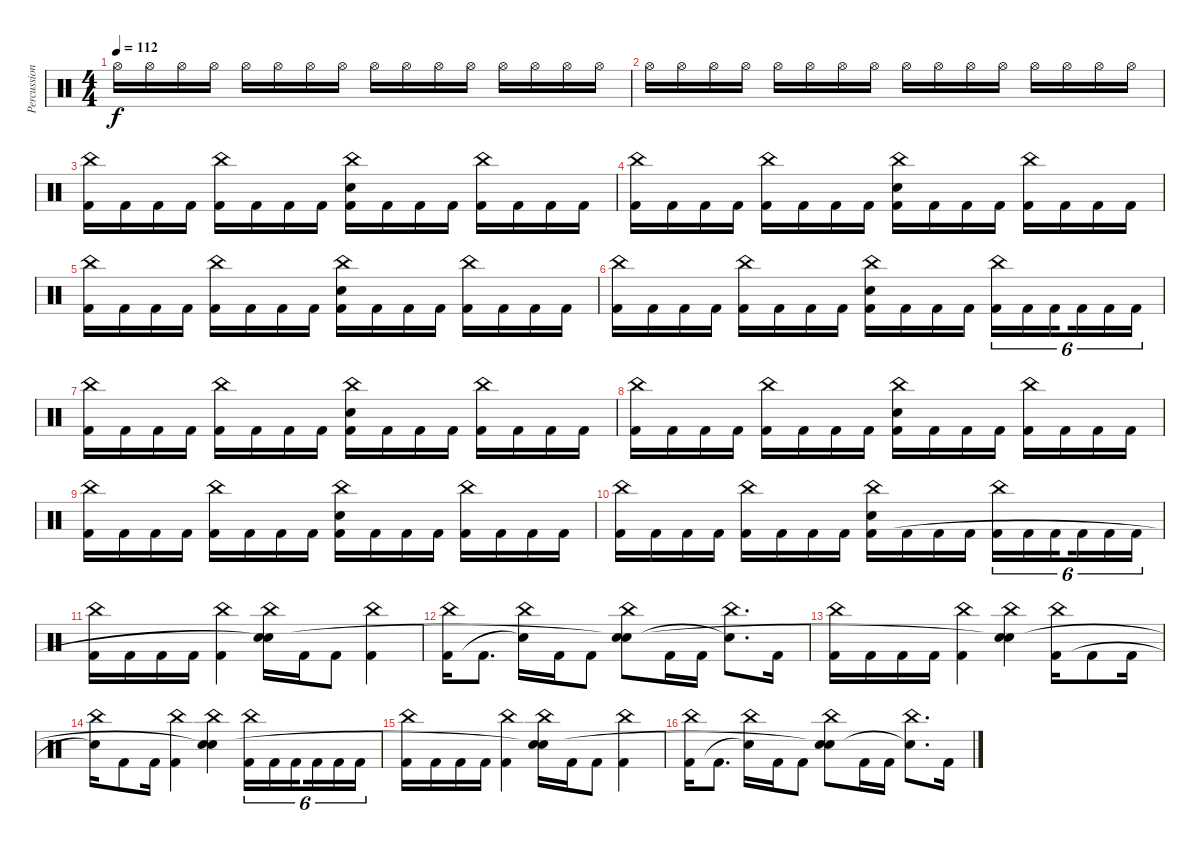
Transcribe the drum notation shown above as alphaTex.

\track ("Percussion" "Percussion") {instrument percussion}
\staff {score}
\articulation defaults
\ts (4 4)
\tempo 112
\clef neutral
\ks c "Hi-Hat (open)".16{dy f} "Hi-Hat (open)".16 "Hi-Hat (open)".16 "Hi-Hat (open)".16 "Hi-Hat (open)".16 "Hi-Hat (open)".16 "Hi-Hat (open)".16 "Hi-Hat (open)".16 "Hi-Hat (open)".16 "Hi-Hat (open)".16 "Hi-Hat (open)".16 "Hi-Hat (open)".16 "Hi-Hat (open)".16 "Hi-Hat (open)".16 "Hi-Hat (open)".16 "Hi-Hat (open)".16
|
"Hi-Hat (open)".16 "Hi-Hat (open)".16 "Hi-Hat (open)".16 "Hi-Hat (open)".16 "Hi-Hat (open)".16 "Hi-Hat (open)".16 "Hi-Hat (open)".16 "Hi-Hat (open)".16 "Hi-Hat (open)".16 "Hi-Hat (open)".16 "Hi-Hat (open)".16 "Hi-Hat (open)".16 "Hi-Hat (open)".16 "Hi-Hat (open)".16 "Hi-Hat (open)".16 "Hi-Hat (open)".16 |
("China (hit)" "Kick (hit) 2").16 "Kick (hit) 2".16 "Kick (hit) 2".16 "Kick (hit) 2".16 ("China (hit)" "Kick (hit) 2").16 "Kick (hit) 2".16 "Kick (hit) 2".16 "Kick (hit) 2".16 ("China (hit)" "Snare (hit) 2" "Kick (hit) 2").16 "Kick (hit) 2".16 "Kick (hit) 2".16 "Kick (hit) 2".16 ("China (hit)" "Kick (hit) 2").16 "Kick (hit) 2".16 "Kick (hit) 2".16 "Kick (hit) 2".16 |
("China (hit)" "Kick (hit) 2").16 "Kick (hit) 2".16 "Kick (hit) 2".16 "Kick (hit) 2".16 ("China (hit)" "Kick (hit) 2").16 "Kick (hit) 2".16 "Kick (hit) 2".16 "Kick (hit) 2".16 ("China (hit)" "Snare (hit) 2" "Kick (hit) 2").16 "Kick (hit) 2".16 "Kick (hit) 2".16 "Kick (hit) 2".16 ("China (hit)" "Kick (hit) 2").16 "Kick (hit) 2".16 "Kick (hit) 2".16 "Kick (hit) 2".16 |
("China (hit)" "Kick (hit) 2").16 "Kick (hit) 2".16 "Kick (hit) 2".16 "Kick (hit) 2".16 ("China (hit)" "Kick (hit) 2").16 "Kick (hit) 2".16 "Kick (hit) 2".16 "Kick (hit) 2".16 ("China (hit)" "Snare (hit) 2" "Kick (hit) 2").16 "Kick (hit) 2".16 "Kick (hit) 2".16 "Kick (hit) 2".16 ("China (hit)" "Kick (hit) 2").16 "Kick (hit) 2".16 "Kick (hit) 2".16 "Kick (hit) 2".16 |
("China (hit)" "Kick (hit) 2").16 "Kick (hit) 2".16 "Kick (hit) 2".16 "Kick (hit) 2".16 ("China (hit)" "Kick (hit) 2").16 "Kick (hit) 2".16 "Kick (hit) 2".16 "Kick (hit) 2".16 ("China (hit)" "Snare (hit) 2" "Kick (hit) 2").16 "Kick (hit) 2".16 "Kick (hit) 2".16 "Kick (hit) 2".16 ("China (hit)" "Kick (hit) 2").16{tu (6 4)} "Kick (hit) 2".16{tu (6 4)} "Kick (hit) 2".16{tu (6 4) beam splitsecondary} "Kick (hit) 2".16{tu (6 4)} "Kick (hit) 2".16{tu (6 4)} "Kick (hit) 2".16{tu (6 4)} |
("China (hit)" "Kick (hit) 2").16 "Kick (hit) 2".16 "Kick (hit) 2".16 "Kick (hit) 2".16 ("China (hit)" "Kick (hit) 2").16 "Kick (hit) 2".16 "Kick (hit) 2".16 "Kick (hit) 2".16 ("China (hit)" "Snare (hit) 2" "Kick (hit) 2").16 "Kick (hit) 2".16 "Kick (hit) 2".16 "Kick (hit) 2".16 ("China (hit)" "Kick (hit) 2").16 "Kick (hit) 2".16 "Kick (hit) 2".16 "Kick (hit) 2".16 |
("China (hit)" "Kick (hit) 2").16 "Kick (hit) 2".16 "Kick (hit) 2".16 "Kick (hit) 2".16 ("China (hit)" "Kick (hit) 2").16 "Kick (hit) 2".16 "Kick (hit) 2".16 "Kick (hit) 2".16 ("China (hit)" "Snare (hit) 2" "Kick (hit) 2").16 "Kick (hit) 2".16 "Kick (hit) 2".16 "Kick (hit) 2".16 ("China (hit)" "Kick (hit) 2").16 "Kick (hit) 2".16 "Kick (hit) 2".16 "Kick (hit) 2".16 |
("China (hit)" "Kick (hit) 2").16 "Kick (hit) 2".16 "Kick (hit) 2".16 "Kick (hit) 2".16 ("China (hit)" "Kick (hit) 2").16 "Kick (hit) 2".16 "Kick (hit) 2".16 "Kick (hit) 2".16 ("China (hit)" "Snare (hit) 2" "Kick (hit) 2").16 "Kick (hit) 2".16 "Kick (hit) 2".16 "Kick (hit) 2".16 ("China (hit)" "Kick (hit) 2").16 "Kick (hit) 2".16 "Kick (hit) 2".16 "Kick (hit) 2".16 |
("China (hit)" "Kick (hit) 2").16 "Kick (hit) 2".16 "Kick (hit) 2".16 "Kick (hit) 2".16 ("China (hit)" "Kick (hit) 2").16 "Kick (hit) 2".16 "Kick (hit) 2".16 "Kick (hit) 2".16 ("China (hit)" "Snare (hit) 2" "Kick (hit) 2").16 "Kick (hit) 2".16 "Kick (hit) 2".16 "Kick (hit) 2".16 ("China (hit)" "Kick (hit) 2").16{tu (6 4)} "Kick (hit) 2".16{tu (6 4)} "Kick (hit) 2".16{tu (6 4) beam splitsecondary} "Kick (hit) 2".16{tu (6 4)} "Kick (hit) 2".16{tu (6 4)} "Kick (hit) 2".16{tu (6 4)} |
("China (hit)" "Kick (hit) 2").16 "Kick (hit) 2".16 "Kick (hit) 2".16 "Kick (hit) 2".16 ("China (hit)" "Kick (hit) 2").4 ("China (hit)" "Snare (hit) 2" "Snare (hit)"{t}).16 "Kick (hit) 2".16 "Kick (hit) 2".8 ("China (hit)" "Kick (hit) 2").4 |
("China (hit)" "Kick (hit) 2").16 "Kick (hit) 2".8{d} ("China (hit)" "Snare (hit)"{t}).16 "Kick (hit) 2".16 "Kick (hit) 2".8 ("China (hit)" "Snare (hit) 2" "Snare (hit)"{t}).8 "Kick (hit) 2".16 "Kick (hit) 2".16 ("China (hit)" "Snare (hit)"{t}).8{d} "Kick (hit) 2".16 |
("China (hit)" "Kick (hit) 2").16 "Kick (hit) 2".16 "Kick (hit) 2".16 "Kick (hit) 2".16 ("China (hit)" "Kick (hit) 2").4 ("China (hit)" "Snare (hit) 2" "Snare (hit)"{t}).4 ("China (hit)" "Kick (hit) 2").16 "Kick (hit) 2".8 "Kick (hit) 2".16 |
("China (hit)" "Snare (hit)"{t}).16 "Kick (hit) 2".8 "Kick (hit) 2".16 ("China (hit)" "Kick (hit) 2").4 ("China (hit)" "Snare (hit) 2" "Snare (hit)"{t}).4 ("China (hit)" "Kick (hit) 2").16{tu (6 4)} "Kick (hit) 2".16{tu (6 4)} "Kick (hit) 2".16{tu (6 4) beam splitsecondary} "Kick (hit) 2".16{tu (6 4)} "Kick (hit) 2".16{tu (6 4)} "Kick (hit) 2".16{tu (6 4)} |
("China (hit)" "Kick (hit) 2").16 "Kick (hit) 2".16 "Kick (hit) 2".16 "Kick (hit) 2".16 ("China (hit)" "Kick (hit) 2").4 ("China (hit)" "Snare (hit) 2" "Snare (hit)"{t}).16 "Kick (hit) 2".16 "Kick (hit) 2".8 ("China (hit)" "Kick (hit) 2").4 |
("China (hit)" "Kick (hit) 2").16 "Kick (hit) 2".8{d} ("China (hit)" "Snare (hit)"{t}).16 "Kick (hit) 2".16 "Kick (hit) 2".8 ("China (hit)" "Snare (hit) 2" "Snare (hit)"{t}).8 "Kick (hit) 2".16 "Kick (hit) 2".16 ("China (hit)" "Snare (hit)"{t}).8{d} "Kick (hit) 2".16
